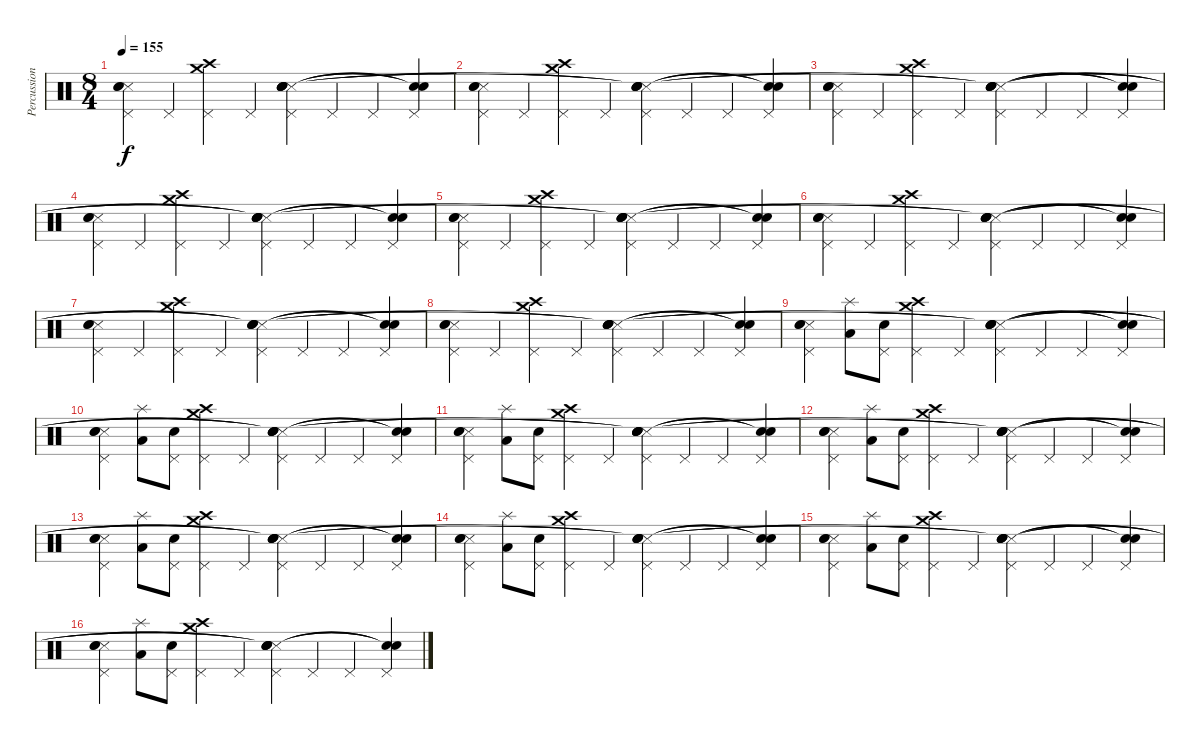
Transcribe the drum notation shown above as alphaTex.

\track ("Percussion" "Percussion") {instrument percussion}
\staff {score}
\articulation defaults
\ts (8 4)
\tempo 155
\clef neutral
\ks c
("Snare (side stick) 3" "Pedal Hi-Hat (hit)" "Electric Snare (hit)" "Snare (hit) 2").4{dy f} "Pedal Hi-Hat (hit)".4 ("Pedal Hi-Hat (hit)" "Crash medium (hit)" "Crash high (hit)").4 "Pedal Hi-Hat (hit)".4 ("Pedal Hi-Hat (hit)" "Snare (side stick) 3" "Electric Snare (hit)" "Snare (hit) 2" "Snare (hit)" "Snare (hit)").4 "Pedal Hi-Hat (hit)".4 "Pedal Hi-Hat (hit)".4 ("Pedal Hi-Hat (hit)" "Snare (hit)"{t} "Snare (hit)"{t}).4 |
("Snare (side stick) 3" "Pedal Hi-Hat (hit)" "Electric Snare (hit)" "Snare (hit) 2").4 "Pedal Hi-Hat (hit)".4 ("Pedal Hi-Hat (hit)" "Crash medium (hit)" "Crash high (hit)").4 "Pedal Hi-Hat (hit)".4 ("Pedal Hi-Hat (hit)" "Snare (side stick) 3" "Electric Snare (hit)" "Snare (hit) 2" "Snare (hit)"{t} "Snare (hit)"{t}).4 "Pedal Hi-Hat (hit)".4 "Pedal Hi-Hat (hit)".4 ("Pedal Hi-Hat (hit)" "Snare (hit)"{t} "Snare (hit)"{t}).4 |
("Snare (side stick) 3" "Pedal Hi-Hat (hit)" "Electric Snare (hit)" "Snare (hit) 2").4 "Pedal Hi-Hat (hit)".4 ("Pedal Hi-Hat (hit)" "Crash medium (hit)" "Crash high (hit)").4 "Pedal Hi-Hat (hit)".4 ("Pedal Hi-Hat (hit)" "Snare (side stick) 3" "Electric Snare (hit)" "Snare (hit) 2" "Snare (hit)"{t} "Snare (hit)"{t}).4 "Pedal Hi-Hat (hit)".4 "Pedal Hi-Hat (hit)".4 ("Pedal Hi-Hat (hit)" "Snare (hit)"{t} "Snare (hit)"{t}).4 |
("Snare (side stick) 3" "Pedal Hi-Hat (hit)" "Electric Snare (hit)" "Snare (hit) 2").4 "Pedal Hi-Hat (hit)".4 ("Pedal Hi-Hat (hit)" "Crash medium (hit)" "Crash high (hit)").4 "Pedal Hi-Hat (hit)".4 ("Pedal Hi-Hat (hit)" "Snare (side stick) 3" "Electric Snare (hit)" "Snare (hit) 2" "Snare (hit)"{t} "Snare (hit)"{t}).4 "Pedal Hi-Hat (hit)".4 "Pedal Hi-Hat (hit)".4 ("Pedal Hi-Hat (hit)" "Snare (hit)"{t} "Snare (hit)"{t}).4 |
("Snare (side stick) 3" "Pedal Hi-Hat (hit)" "Electric Snare (hit)" "Snare (hit) 2").4 "Pedal Hi-Hat (hit)".4 ("Pedal Hi-Hat (hit)" "Crash medium (hit)" "Crash high (hit)").4 "Pedal Hi-Hat (hit)".4 ("Pedal Hi-Hat (hit)" "Snare (side stick) 3" "Electric Snare (hit)" "Snare (hit) 2" "Snare (hit)"{t} "Snare (hit)"{t}).4 "Pedal Hi-Hat (hit)".4 "Pedal Hi-Hat (hit)".4 ("Pedal Hi-Hat (hit)" "Snare (hit)"{t} "Snare (hit)"{t}).4 |
("Snare (side stick) 3" "Pedal Hi-Hat (hit)" "Electric Snare (hit)" "Snare (hit) 2").4 "Pedal Hi-Hat (hit)".4 ("Pedal Hi-Hat (hit)" "Crash medium (hit)" "Crash high (hit)").4 "Pedal Hi-Hat (hit)".4 ("Pedal Hi-Hat (hit)" "Snare (side stick) 3" "Electric Snare (hit)" "Snare (hit) 2" "Snare (hit)"{t} "Snare (hit)"{t}).4 "Pedal Hi-Hat (hit)".4 "Pedal Hi-Hat (hit)".4 ("Pedal Hi-Hat (hit)" "Snare (hit)"{t} "Snare (hit)"{t}).4 |
("Snare (side stick) 3" "Pedal Hi-Hat (hit)" "Electric Snare (hit)" "Snare (hit) 2").4 "Pedal Hi-Hat (hit)".4 ("Pedal Hi-Hat (hit)" "Crash medium (hit)" "Crash high (hit)").4 "Pedal Hi-Hat (hit)".4 ("Pedal Hi-Hat (hit)" "Snare (side stick) 3" "Electric Snare (hit)" "Snare (hit) 2" "Snare (hit)"{t} "Snare (hit)"{t}).4 "Pedal Hi-Hat (hit)".4 "Pedal Hi-Hat (hit)".4 ("Pedal Hi-Hat (hit)" "Snare (hit)"{t} "Snare (hit)"{t}).4 |
("Snare (side stick) 3" "Pedal Hi-Hat (hit)" "Electric Snare (hit)" "Snare (hit) 2").4 "Pedal Hi-Hat (hit)".4 ("Pedal Hi-Hat (hit)" "Crash medium (hit)" "Crash high (hit)").4 "Pedal Hi-Hat (hit)".4 ("Pedal Hi-Hat (hit)" "Snare (side stick) 3" "Electric Snare (hit)" "Snare (hit) 2" "Snare (hit)"{t} "Snare (hit)"{t}).4 "Pedal Hi-Hat (hit)".4 "Pedal Hi-Hat (hit)".4 ("Pedal Hi-Hat (hit)" "Snare (hit)"{t} "Snare (hit)"{t}).4 |
("Snare (side stick) 3" "Pedal Hi-Hat (hit)" "Electric Snare (hit)" "Snare (hit) 2").4 ("Low Tom (hit)" "Splash (hit)").8 ("Pedal Hi-Hat (hit)" "Electric Snare (hit)").8 ("Pedal Hi-Hat (hit)" "Crash medium (hit)" "Crash high (hit)").4 "Pedal Hi-Hat (hit)".4 ("Pedal Hi-Hat (hit)" "Snare (side stick) 3" "Electric Snare (hit)" "Snare (hit) 2" "Snare (hit)"{t} "Snare (hit)"{t}).4 "Pedal Hi-Hat (hit)".4 "Pedal Hi-Hat (hit)".4 ("Pedal Hi-Hat (hit)" "Snare (hit)"{t} "Snare (hit)"{t}).4 |
("Snare (side stick) 3" "Pedal Hi-Hat (hit)" "Electric Snare (hit)" "Snare (hit) 2").4 ("Low Tom (hit)" "Splash (hit)").8 ("Pedal Hi-Hat (hit)" "Electric Snare (hit)").8 ("Pedal Hi-Hat (hit)" "Crash medium (hit)" "Crash high (hit)").4 "Pedal Hi-Hat (hit)".4 ("Pedal Hi-Hat (hit)" "Snare (side stick) 3" "Electric Snare (hit)" "Snare (hit) 2" "Snare (hit)"{t} "Snare (hit)"{t}).4 "Pedal Hi-Hat (hit)".4 "Pedal Hi-Hat (hit)".4 ("Pedal Hi-Hat (hit)" "Snare (hit)"{t} "Snare (hit)"{t}).4 |
("Snare (side stick) 3" "Pedal Hi-Hat (hit)" "Electric Snare (hit)" "Snare (hit) 2").4 ("Low Tom (hit)" "Splash (hit)").8 ("Pedal Hi-Hat (hit)" "Electric Snare (hit)").8 ("Pedal Hi-Hat (hit)" "Crash medium (hit)" "Crash high (hit)").4 "Pedal Hi-Hat (hit)".4 ("Pedal Hi-Hat (hit)" "Snare (side stick) 3" "Electric Snare (hit)" "Snare (hit) 2" "Snare (hit)"{t} "Snare (hit)"{t}).4 "Pedal Hi-Hat (hit)".4 "Pedal Hi-Hat (hit)".4 ("Pedal Hi-Hat (hit)" "Snare (hit)"{t} "Snare (hit)"{t}).4 |
("Snare (side stick) 3" "Pedal Hi-Hat (hit)" "Electric Snare (hit)" "Snare (hit) 2").4 ("Low Tom (hit)" "Splash (hit)").8 ("Pedal Hi-Hat (hit)" "Electric Snare (hit)").8 ("Pedal Hi-Hat (hit)" "Crash medium (hit)" "Crash high (hit)").4 "Pedal Hi-Hat (hit)".4 ("Pedal Hi-Hat (hit)" "Snare (side stick) 3" "Electric Snare (hit)" "Snare (hit) 2" "Snare (hit)"{t} "Snare (hit)"{t}).4 "Pedal Hi-Hat (hit)".4 "Pedal Hi-Hat (hit)".4 ("Pedal Hi-Hat (hit)" "Snare (hit)"{t} "Snare (hit)"{t}).4 |
("Snare (side stick) 3" "Pedal Hi-Hat (hit)" "Electric Snare (hit)" "Snare (hit) 2").4 ("Low Tom (hit)" "Splash (hit)").8 ("Pedal Hi-Hat (hit)" "Electric Snare (hit)").8 ("Pedal Hi-Hat (hit)" "Crash medium (hit)" "Crash high (hit)").4 "Pedal Hi-Hat (hit)".4 ("Pedal Hi-Hat (hit)" "Snare (side stick) 3" "Electric Snare (hit)" "Snare (hit) 2" "Snare (hit)"{t} "Snare (hit)"{t}).4 "Pedal Hi-Hat (hit)".4 "Pedal Hi-Hat (hit)".4 ("Pedal Hi-Hat (hit)" "Snare (hit)"{t} "Snare (hit)"{t}).4 |
("Snare (side stick) 3" "Pedal Hi-Hat (hit)" "Electric Snare (hit)" "Snare (hit) 2").4 ("Low Tom (hit)" "Splash (hit)").8 ("Pedal Hi-Hat (hit)" "Electric Snare (hit)").8 ("Pedal Hi-Hat (hit)" "Crash medium (hit)" "Crash high (hit)").4 "Pedal Hi-Hat (hit)".4 ("Pedal Hi-Hat (hit)" "Snare (side stick) 3" "Electric Snare (hit)" "Snare (hit) 2" "Snare (hit)"{t} "Snare (hit)"{t}).4 "Pedal Hi-Hat (hit)".4 "Pedal Hi-Hat (hit)".4 ("Pedal Hi-Hat (hit)" "Snare (hit)"{t} "Snare (hit)"{t}).4 |
("Snare (side stick) 3" "Pedal Hi-Hat (hit)" "Electric Snare (hit)" "Snare (hit) 2").4 ("Low Tom (hit)" "Splash (hit)").8 ("Pedal Hi-Hat (hit)" "Electric Snare (hit)").8 ("Pedal Hi-Hat (hit)" "Crash medium (hit)" "Crash high (hit)").4 "Pedal Hi-Hat (hit)".4 ("Pedal Hi-Hat (hit)" "Snare (side stick) 3" "Electric Snare (hit)" "Snare (hit) 2" "Snare (hit)"{t} "Snare (hit)"{t}).4 "Pedal Hi-Hat (hit)".4 "Pedal Hi-Hat (hit)".4 ("Pedal Hi-Hat (hit)" "Snare (hit)"{t} "Snare (hit)"{t}).4 |
("Snare (side stick) 3" "Pedal Hi-Hat (hit)" "Electric Snare (hit)" "Snare (hit) 2").4 ("Low Tom (hit)" "Splash (hit)").8 ("Pedal Hi-Hat (hit)" "Electric Snare (hit)").8 ("Pedal Hi-Hat (hit)" "Crash medium (hit)" "Crash high (hit)").4 "Pedal Hi-Hat (hit)".4 ("Pedal Hi-Hat (hit)" "Snare (side stick) 3" "Electric Snare (hit)" "Snare (hit) 2" "Snare (hit)"{t} "Snare (hit)"{t}).4 "Pedal Hi-Hat (hit)".4 "Pedal Hi-Hat (hit)".4 ("Pedal Hi-Hat (hit)" "Snare (hit)"{t} "Snare (hit)"{t}).4
